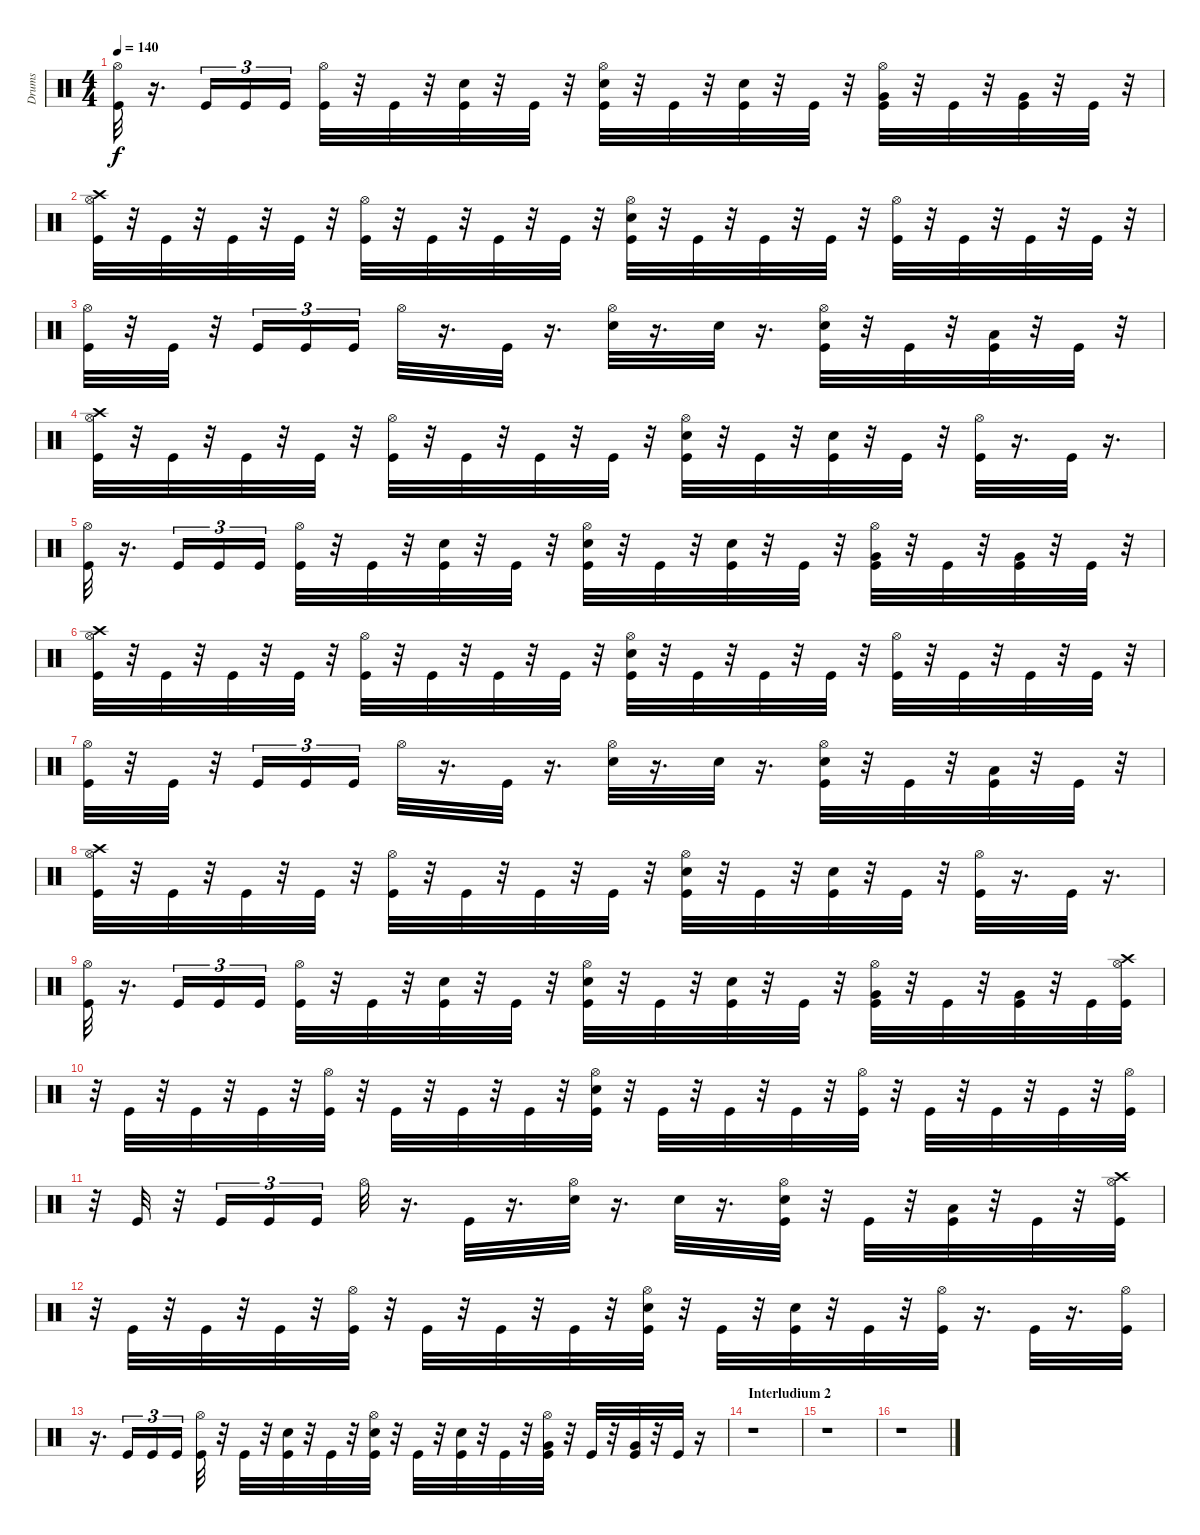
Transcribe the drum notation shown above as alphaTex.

\track ("Drums" "Drums") {instrument percussion}
\staff {score}
\articulation defaults
\ts (4 4)
\tempo 140
\clef neutral
\ks c
("Hi-Hat (open)" "Kick (hit)").32{dy f} r.16{d} "Kick (hit)".16{tu (3 2)} "Kick (hit)".16{tu (3 2)} "Kick (hit)".16{tu (3 2)} ("Kick (hit)" "Hi-Hat (open)").32 r.32 "Kick (hit)".32 r.32 ("Kick (hit)" "Electric Snare (hit)").32 r.32 "Kick (hit)".32 r.32 ("Hi-Hat (open)" "Electric Snare (hit)" "Kick (hit)").32 r.32 "Kick (hit)".32 r.32 ("Kick (hit)" "Electric Snare (hit)").32 r.32 "Kick (hit)".32 r.32 ("Kick (hit)" "Hi-Hat (open)" "Very Low Tom (hit)").32 r.32 "Kick (hit)".32 r.32 ("Kick (hit)" "Very Low Tom (hit)").32 r.32 "Kick (hit)".32 r.32 |
("Hi-Hat (open)" "Crash high (hit)" "Kick (hit)").32 r.32 "Kick (hit)".32 r.32 "Kick (hit)".32 r.32 "Kick (hit)".32 r.32 ("Hi-Hat (open)" "Kick (hit)").32 r.32 "Kick (hit)".32 r.32 "Kick (hit)".32 r.32 "Kick (hit)".32 r.32 ("Kick (hit)" "Hi-Hat (open)" "Electric Snare (hit)").32 r.32 "Kick (hit)".32 r.32 "Kick (hit)".32 r.32 "Kick (hit)".32 r.32 ("Kick (hit)" "Hi-Hat (open)").32 r.32 "Kick (hit)".32 r.32 "Kick (hit)".32 r.32 "Kick (hit)".32 r.32 |
("Hi-Hat (open)" "Kick (hit)").32 r.32 "Kick (hit)".32 r.32 "Kick (hit)".16{tu (3 2)} "Kick (hit)".16{tu (3 2)} "Kick (hit)".16{tu (3 2)} "Hi-Hat (open)".32 r.16{d} "Kick (hit)".32 r.16{d} ("Hi-Hat (open)" "Electric Snare (hit)").32 r.16{d} "Electric Snare (hit)".32 r.16{d} ("Electric Snare (hit)" "Hi-Hat (open)" "Kick (hit)").32 r.32 "Kick (hit)".32 r.32 ("Low Floor Tom (hit)" "Kick (hit)").32 r.32 "Kick (hit)".32 r.32 |
("Crash high (hit)" "Hi-Hat (open)" "Kick (hit)").32 r.32 "Kick (hit)".32 r.32 "Kick (hit)".32 r.32 "Kick (hit)".32 r.32 ("Kick (hit)" "Hi-Hat (open)").32 r.32 "Kick (hit)".32 r.32 "Kick (hit)".32 r.32 "Kick (hit)".32 r.32 ("Kick (hit)" "Hi-Hat (open)" "Electric Snare (hit)").32 r.32 "Kick (hit)".32 r.32 ("Electric Snare (hit)" "Kick (hit)").32 r.32 "Kick (hit)".32 r.32 ("Hi-Hat (open)" "Kick (hit)").32 r.16{d} "Kick (hit)".32 r.16{d} |
("Hi-Hat (open)" "Kick (hit)").32 r.16{d} "Kick (hit)".16{tu (3 2)} "Kick (hit)".16{tu (3 2)} "Kick (hit)".16{tu (3 2)} ("Kick (hit)" "Hi-Hat (open)").32 r.32 "Kick (hit)".32 r.32 ("Kick (hit)" "Electric Snare (hit)").32 r.32 "Kick (hit)".32 r.32 ("Hi-Hat (open)" "Electric Snare (hit)" "Kick (hit)").32 r.32 "Kick (hit)".32 r.32 ("Kick (hit)" "Electric Snare (hit)").32 r.32 "Kick (hit)".32 r.32 ("Kick (hit)" "Hi-Hat (open)" "Very Low Tom (hit)").32 r.32 "Kick (hit)".32 r.32 ("Kick (hit)" "Very Low Tom (hit)").32 r.32 "Kick (hit)".32 r.32 |
("Hi-Hat (open)" "Crash high (hit)" "Kick (hit)").32 r.32 "Kick (hit)".32 r.32 "Kick (hit)".32 r.32 "Kick (hit)".32 r.32 ("Hi-Hat (open)" "Kick (hit)").32 r.32 "Kick (hit)".32 r.32 "Kick (hit)".32 r.32 "Kick (hit)".32 r.32 ("Kick (hit)" "Hi-Hat (open)" "Electric Snare (hit)").32 r.32 "Kick (hit)".32 r.32 "Kick (hit)".32 r.32 "Kick (hit)".32 r.32 ("Kick (hit)" "Hi-Hat (open)").32 r.32 "Kick (hit)".32 r.32 "Kick (hit)".32 r.32 "Kick (hit)".32 r.32 |
("Hi-Hat (open)" "Kick (hit)").32 r.32 "Kick (hit)".32 r.32 "Kick (hit)".16{tu (3 2)} "Kick (hit)".16{tu (3 2)} "Kick (hit)".16{tu (3 2)} "Hi-Hat (open)".32 r.16{d} "Kick (hit)".32 r.16{d} ("Hi-Hat (open)" "Electric Snare (hit)").32 r.16{d} "Electric Snare (hit)".32 r.16{d} ("Electric Snare (hit)" "Hi-Hat (open)" "Kick (hit)").32 r.32 "Kick (hit)".32 r.32 ("Low Floor Tom (hit)" "Kick (hit)").32 r.32 "Kick (hit)".32 r.32 |
("Crash high (hit)" "Hi-Hat (open)" "Kick (hit)").32 r.32 "Kick (hit)".32 r.32 "Kick (hit)".32 r.32 "Kick (hit)".32 r.32 ("Kick (hit)" "Hi-Hat (open)").32 r.32 "Kick (hit)".32 r.32 "Kick (hit)".32 r.32 "Kick (hit)".32 r.32 ("Kick (hit)" "Hi-Hat (open)" "Electric Snare (hit)").32 r.32 "Kick (hit)".32 r.32 ("Electric Snare (hit)" "Kick (hit)").32 r.32 "Kick (hit)".32 r.32 ("Hi-Hat (open)" "Kick (hit)").32 r.16{d} "Kick (hit)".32 r.16{d} |
("Hi-Hat (open)" "Kick (hit)").32 r.16{d} "Kick (hit)".16{tu (3 2)} "Kick (hit)".16{tu (3 2)} "Kick (hit)".16{tu (3 2)} ("Kick (hit)" "Hi-Hat (open)").32 r.32 "Kick (hit)".32 r.32 ("Kick (hit)" "Electric Snare (hit)").32 r.32 "Kick (hit)".32 r.32 ("Hi-Hat (open)" "Electric Snare (hit)" "Kick (hit)").32 r.32 "Kick (hit)".32 r.32 ("Kick (hit)" "Electric Snare (hit)").32 r.32 "Kick (hit)".32 r.32 ("Kick (hit)" "Hi-Hat (open)" "Very Low Tom (hit)").32 r.32 "Kick (hit)".32 r.32 ("Kick (hit)" "Very Low Tom (hit)").32 r.32 "Kick (hit)".32 ("Hi-Hat (open)" "Crash high (hit)" "Kick (hit)").32 |
r.32 "Kick (hit)".32 r.32 "Kick (hit)".32 r.32 "Kick (hit)".32 r.32 ("Hi-Hat (open)" "Kick (hit)").32 r.32 "Kick (hit)".32 r.32 "Kick (hit)".32 r.32 "Kick (hit)".32 r.32 ("Kick (hit)" "Hi-Hat (open)" "Electric Snare (hit)").32 r.32 "Kick (hit)".32 r.32 "Kick (hit)".32 r.32 "Kick (hit)".32 r.32 ("Kick (hit)" "Hi-Hat (open)").32 r.32 "Kick (hit)".32 r.32 "Kick (hit)".32 r.32 "Kick (hit)".32 r.32 ("Hi-Hat (open)" "Kick (hit)").32 |
r.32 "Kick (hit)".32 r.32 "Kick (hit)".16{tu (3 2)} "Kick (hit)".16{tu (3 2)} "Kick (hit)".16{tu (3 2)} "Hi-Hat (open)".32 r.16{d} "Kick (hit)".32 r.16{d} ("Hi-Hat (open)" "Electric Snare (hit)").32 r.16{d} "Electric Snare (hit)".32 r.16{d} ("Electric Snare (hit)" "Hi-Hat (open)" "Kick (hit)").32 r.32 "Kick (hit)".32 r.32 ("Low Floor Tom (hit)" "Kick (hit)").32 r.32 "Kick (hit)".32 r.32 ("Crash high (hit)" "Hi-Hat (open)" "Kick (hit)").32 |
r.32 "Kick (hit)".32 r.32 "Kick (hit)".32 r.32 "Kick (hit)".32 r.32 ("Kick (hit)" "Hi-Hat (open)").32 r.32 "Kick (hit)".32 r.32 "Kick (hit)".32 r.32 "Kick (hit)".32 r.32 ("Kick (hit)" "Hi-Hat (open)" "Electric Snare (hit)").32 r.32 "Kick (hit)".32 r.32 ("Electric Snare (hit)" "Kick (hit)").32 r.32 "Kick (hit)".32 r.32 ("Hi-Hat (open)" "Kick (hit)").32 r.16{d} "Kick (hit)".32 r.16{d} ("Hi-Hat (open)" "Kick (hit)").32 |
r.16{d} "Kick (hit)".16{tu (3 2)} "Kick (hit)".16{tu (3 2)} "Kick (hit)".16{tu (3 2)} ("Kick (hit)" "Hi-Hat (open)").32 r.32 "Kick (hit)".32 r.32 ("Kick (hit)" "Electric Snare (hit)").32 r.32 "Kick (hit)".32 r.32 ("Hi-Hat (open)" "Electric Snare (hit)" "Kick (hit)").32 r.32 "Kick (hit)".32 r.32 ("Kick (hit)" "Electric Snare (hit)").32 r.32 "Kick (hit)".32 r.32 ("Kick (hit)" "Hi-Hat (open)" "Very Low Tom (hit)").32 r.32 "Kick (hit)".32 r.32 ("Kick (hit)" "Very Low Tom (hit)").32 r.32 "Kick (hit)".32 r.16 |
\section ("" "Interludium 2")
r.1 |
r.1 |
r.1
